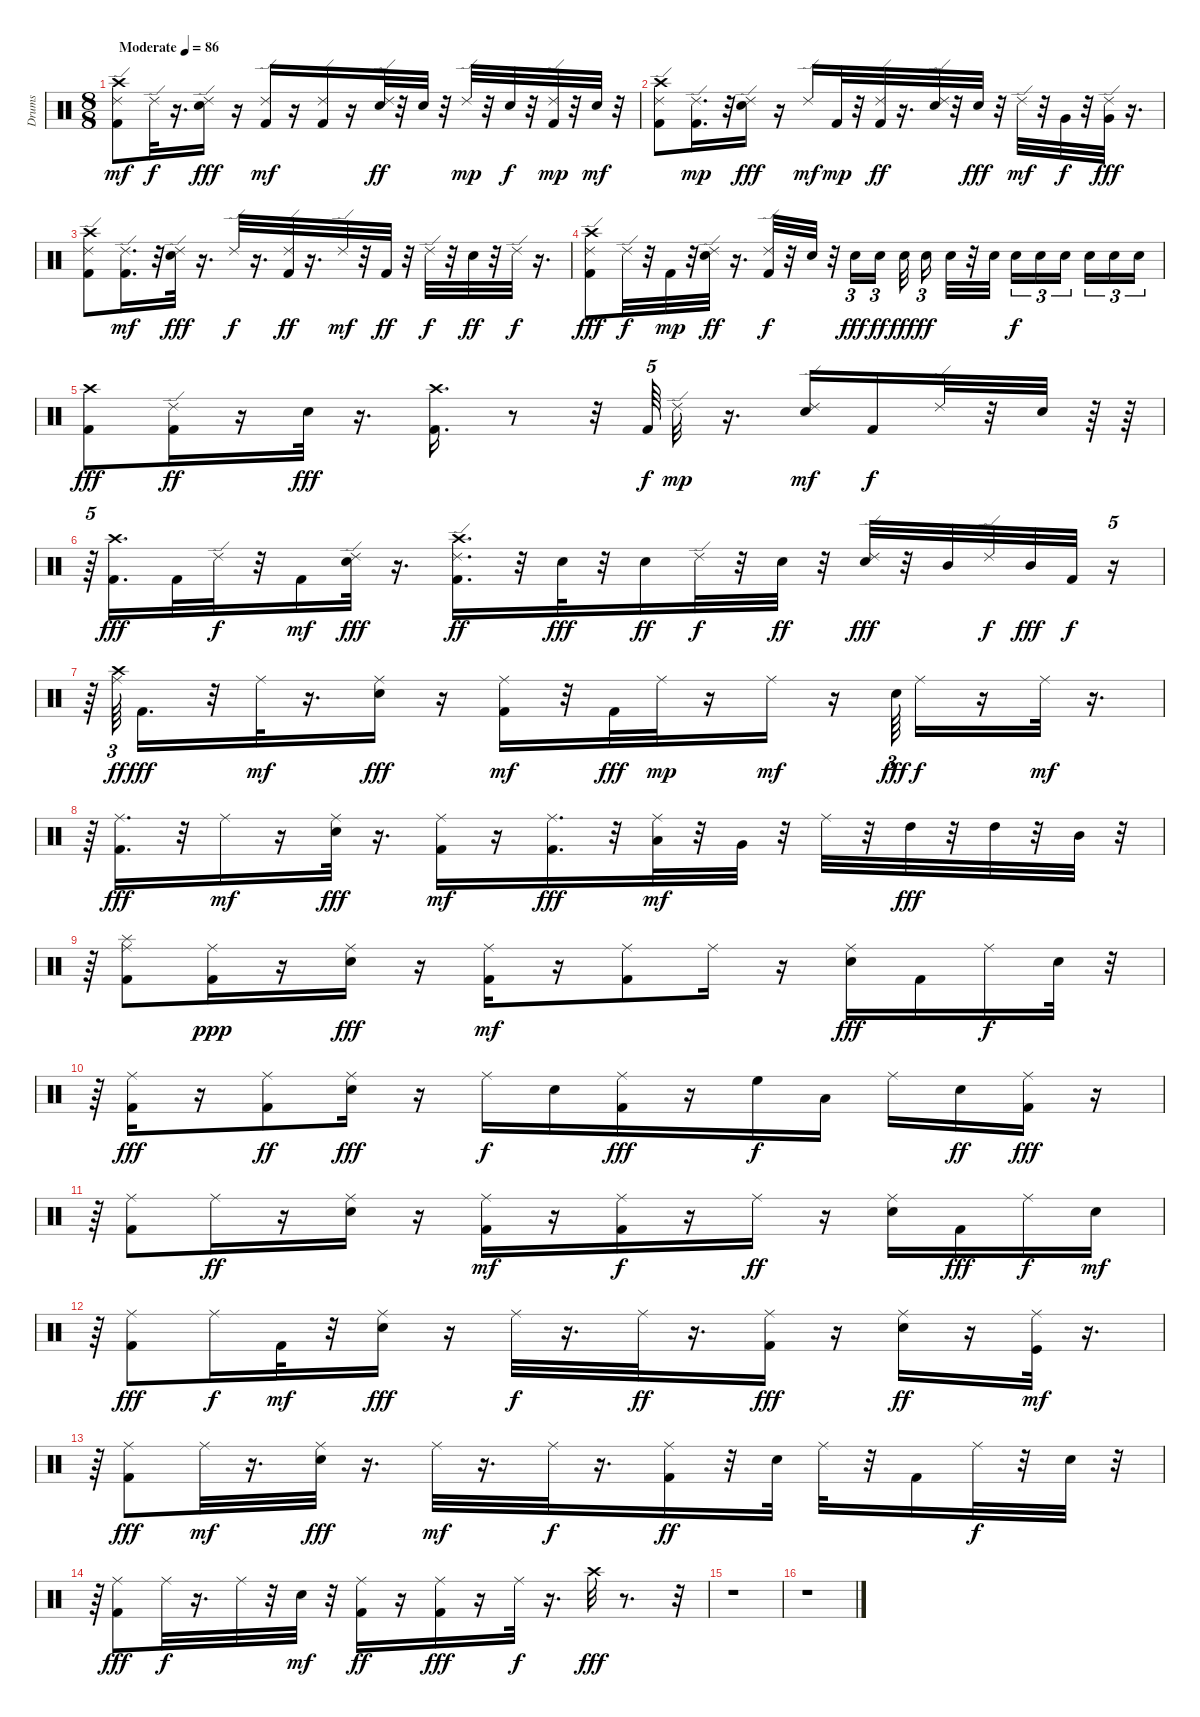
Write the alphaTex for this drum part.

\track ("Drums" "Drums") {instrument percussion}
\staff {score}
\articulation defaults
\ts (8 8)
\tempo (86 "Moderate")
\clef neutral
\ks c
("Crash high (hit)" "Kick (hit) 2" "Ride (edge) 2").8{dy mf} "Ride (edge) 2".32{dy f} r.16{d} ("Electric Snare (hit)" "Ride (edge) 2").16{dy fff} r.16 ("Kick (hit) 2" "Ride (edge) 2").16{dy mf} r.16 ("Kick (hit) 2" "Ride (edge) 2").16 r.16 ("Ride (edge) 2" "Electric Snare (hit)").32{dy ff} r.32 "Snare (hit) 2".32 r.32 "Ride (edge) 2".32{dy mp} r.32 "Snare (hit) 2".32{dy f} r.32 ("Ride (edge) 2" "Kick (hit) 2").32{dy mp} r.32 "Electric Snare (hit)".32{dy mf} r.32 |
("Crash high (hit)" "Kick (hit) 2" "Ride (edge) 2").8 ("Ride (edge) 2" "Kick (hit) 2").16{d dy mp} r.32 ("Ride (edge) 2" "Electric Snare (hit)").16{dy fff} r.16 "Ride (edge) 2".16{dy mf} "Kick (hit) 2".32{dy mp} r.32 ("Ride (edge) 2" "Kick (hit) 2").32{dy ff} r.16{d} ("Electric Snare (hit)" "Ride (edge) 2").32 r.32 "Electric Snare (hit)".32{dy fff} r.32 "Ride (edge) 2".32{dy mf} r.32 "Very Low Tom (hit)".32{dy f} r.32 ("Very Low Tom (hit)" "Ride (edge) 2").32{dy fff} r.16{d} |
("Crash high (hit)" "Kick (hit) 2" "Ride (edge) 2").8 ("Ride (edge) 2" "Kick (hit) 2").16{d dy mf} r.32 ("Ride (edge) 2" "Electric Snare (hit)").32{dy fff} r.16{d} "Ride (edge) 2".32{dy f} r.16{d} ("Kick (hit) 2" "Ride (edge) 2").32{dy ff} r.16{d} "Ride (edge) 2".32{dy mf} r.32 "Kick (hit) 2".32{dy ff} r.32 "Ride (edge) 2".32{dy f} r.32 "Electric Snare (hit)".32{dy ff} r.32 "Ride (edge) 2".32{dy f} r.16{d} |
("Crash high (hit)" "Ride (edge) 2" "Kick (hit) 2").8{dy fff} "Ride (edge) 2".32{dy f} r.32 "Kick (hit) 2".32{dy mp} r.32 ("Ride (edge) 2" "Electric Snare (hit)").32{dy ff} r.16{d} ("Ride (edge) 2" "Kick (hit) 2").32{dy f} r.32 "Snare (hit) 2".32 r.32 "Electric Snare (hit)".16{tu (3 2) dy fff} "Electric Snare (hit)".16{tu (3 2) dy ff} "Electric Snare (hit)".32{dy fff} "Electric Snare (hit)".16{tu (3 2) dy ff} "Electric Snare (hit)".32 r.32 "Snare (hit) 2".32 "Electric Snare (hit)".16{tu (3 2) dy f} "Electric Snare (hit)".16{tu (3 2)} "Snare (hit) 2".16{tu (3 2)} "Electric Snare (hit)".16{tu (3 2)} "Snare (hit) 2".16{tu (3 2)} "Snare (hit) 2".16{tu (3 2)} |
("Kick (hit) 2" "Crash high (hit)").8{dy fff} ("Kick (hit) 2" "Ride (edge) 2").16{dy ff} r.16 "Electric Snare (hit)".32{dy fff} r.16{d} ("Crash high (hit)" "Kick (hit) 2").16{d} r.8 r.32 "Kick (hit) 2".64{tu (5 4) dy f} "Ride (edge) 2".32{dy mp} r.16{d} ("Electric Snare (hit)" "Ride (edge) 2").16{dy mf} "Kick (hit) 2".16{dy f} "Ride (edge) 2".32 r.32 "Electric Snare (hit)".32 r.64 r.64 |
r.64{tu (5 4)} ("Crash high (hit)" "Kick (hit) 2").16{d dy fff} "Kick (hit) 2".32 "Ride (edge) 2".32{dy f} r.32 "Kick (hit) 2".16{dy mf} ("Electric Snare (hit)" "Ride (edge) 2").32{dy fff} r.16{d} ("Kick (hit) 2" "Crash high (hit)" "Ride (edge) 2").16{d dy ff} r.32 "Electric Snare (hit)".32{dy fff} r.32 "Snare (hit) 2".16{dy ff} "Ride (edge) 2".32{dy f} r.32 "Electric Snare (hit)".32{dy ff} r.32 ("Snare (hit) 2" "Ride (edge) 2").32{dy fff} r.32 "Mid Tom (hit)".32 "Ride (edge) 2".32{dy f} "Mid Tom (hit)".32{dy fff} "Kick (hit) 2".32{dy f} r.16{tu (5 4)} |
r.64{tu (5 4)} ("Crash high (hit)" "Ride (middle)").64{tu (3 2) dy ff} "Kick (hit) 2".16{d dy fff} r.32 "Ride (middle)".32{dy mf} r.16{d} ("Ride (middle)" "Electric Snare (hit)").16{dy fff} r.16 ("Kick (hit) 2" "Ride (middle)").16{dy mf} r.32 "Kick (hit) 2".32{dy fff} "Ride (middle)".32{dy mp} r.16 "Ride (middle)".16{dy mf} r.16 "Electric Snare (hit)".64{tu (3 2) dy fff} "Ride (middle)".16{dy f} r.16 "Ride (middle)".32{dy mf} r.16{d} |
r.64 ("Ride (middle)" "Kick (hit) 2").16{d dy fff} r.32 "Ride (middle)".16{dy mf} r.16 ("Electric Snare (hit)" "Ride (middle)").32{dy fff} r.16{d} ("Kick (hit) 2" "Ride (middle)").16{dy mf} r.16 ("Kick (hit) 2" "Ride (middle)").16{d dy fff} r.32 ("Low Tom (hit)" "Ride (middle)").32{dy mf} r.32 "Very Low Tom (hit)".32 r.32 "Ride (middle)".32 r.32 "High Tom (hit)".32{dy fff} r.32 "High Tom (hit)".32 r.32 "Mid Tom (hit)".32 r.32 |
r.64 ("Splash (hit)" "Kick (hit) 2" "Ride (middle)").8 ("Ride (middle)" "Kick (hit) 2").16{dy ppp} r.16 ("Ride (middle)" "Electric Snare (hit)").16{dy fff} r.16 ("Kick (hit) 2" "Ride (middle)").16{dy mf} r.16 ("Kick (hit) 2" "Ride (middle)").8 "Ride (middle)".16 r.16 ("Ride (middle)" "Electric Snare (hit)").16{dy fff} "Kick (hit) 2".16 "Ride (middle)".16{dy f} "Electric Snare (hit)".32 r.32 |
r.64 ("Ride (middle)" "Kick (hit) 2").16{dy fff} r.16 ("Ride (middle)" "Kick (hit) 2").8{dy ff} ("Ride (middle)" "Electric Snare (hit)").16{dy fff} r.16 "Ride (middle)".16{dy f} "Electric Snare (hit)".16 ("Kick (hit) 2" "Ride (middle)").16{dy fff} r.16 "High Floor Tom (hit)".16{dy f} "Low Tom (hit)".16 "Ride (middle)".16 "Electric Snare (hit)".16{dy ff} ("Kick (hit) 2" "Ride (middle)").16{dy fff} r.16 |
r.64 ("Ride (middle)" "Kick (hit) 2").8 "Ride (middle)".16{dy ff} r.16 ("Ride (middle)" "Electric Snare (hit)").16 r.16 ("Ride (middle)" "Kick (hit) 2").16{dy mf} r.16 ("Kick (hit) 2" "Ride (middle)").16{dy f} r.16 "Ride (middle)".16{dy ff} r.16 ("Electric Snare (hit)" "Ride (middle)").16 "Kick (hit) 2".16{dy fff} "Ride (middle)".16{dy f} "Electric Snare (hit)".16{dy mf} |
r.64 ("Ride (middle)" "Kick (hit) 2").8{dy fff} "Ride (middle)".16{dy f} "Kick (hit) 2".32{dy mf} r.32 ("Ride (middle)" "Electric Snare (hit)").16{dy fff} r.16 "Ride (middle)".32{dy f} r.16{d} "Ride (middle)".32{dy ff} r.16{d} ("Kick (hit) 2" "Ride (middle)").16{dy fff} r.16 ("Ride (middle)" "Electric Snare (hit)").16{dy ff} r.16 ("Kick (hit)" "Ride (middle)").32{dy mf} r.16{d} |
r.64 ("Ride (middle)" "Kick (hit) 2").8{dy fff} "Ride (middle)".32{dy mf} r.16{d} ("Electric Snare (hit)" "Ride (middle)").32{dy fff} r.16{d} "Ride (middle)".32{dy mf} r.16{d} "Ride (middle)".32{dy f} r.16{d} ("Kick (hit) 2" "Ride (middle)").16{dy ff} r.32 "Electric Snare (hit)".32 "Ride (middle)".32 r.32 "Kick (hit) 2".16 "Ride (middle)".32{dy f} r.32 "Electric Snare (hit)".32 r.32 |
r.64 ("Ride (middle)" "Kick (hit) 2").8{dy fff} "Ride (middle)".32{dy f} r.16{d} "Ride (middle)".32 r.32 "Electric Snare (hit)".32{dy mf} r.32 ("Ride (middle)" "Kick (hit) 2").16{dy ff} r.16 ("Kick (hit) 2" "Ride (middle)").16{dy fff} r.16 "Ride (middle)".32{dy f} r.16{d} "Crash high (hit)".32{dy fff} r.8{d} r.32 |
r.1 |
r.1
